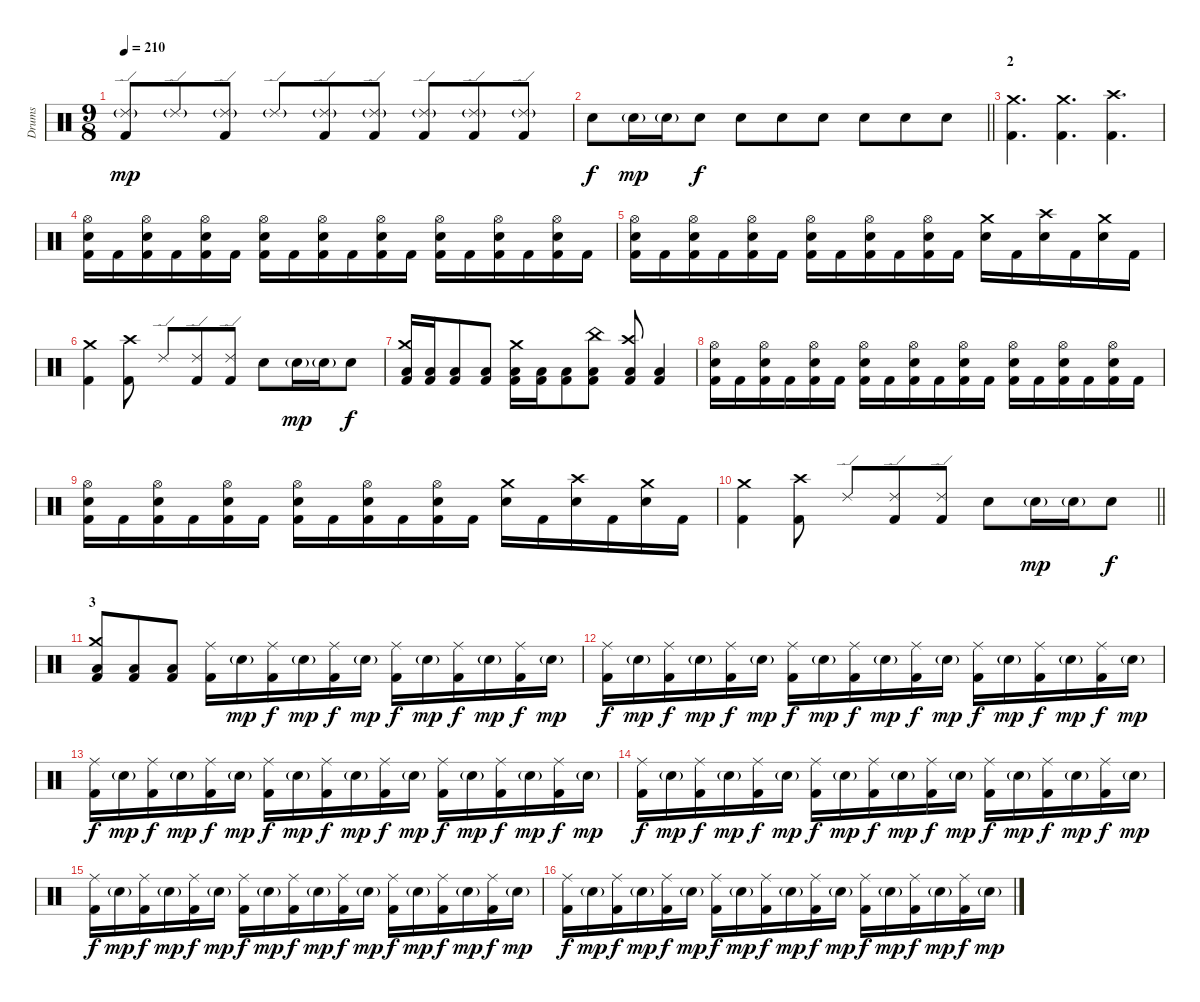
\track ("Drums" "Drums") {instrument percussion}
\staff {score}
\articulation defaults
\ts (9 8)
\tempo 210
\clef neutral
\ks c
("Ride (edge) 2"{g} "Kick (hit) 2").8{dy mp} "Ride (edge) 2"{g}.8 ("Ride (edge) 2"{g} "Kick (hit) 2").8 "Ride (edge) 2"{g}.8 ("Ride (edge) 2"{g} "Kick (hit) 2").8 ("Ride (edge) 2"{g} "Kick (hit) 2").8 ("Ride (edge) 2"{g} "Kick (hit) 2").8 ("Ride (edge) 2"{g} "Kick (hit) 2").8 ("Ride (edge) 2"{g} "Kick (hit) 2").8 |
\barLineRight lightlight "Electric Snare (hit)".8{dy f} "Electric Snare (hit)"{g}.16{dy mp} "Electric Snare (hit)"{g}.16 "Electric Snare (hit)".8{dy f} "Electric Snare (hit)".8 "Electric Snare (hit)".8 "Electric Snare (hit)".8 "Electric Snare (hit)".8 "Electric Snare (hit)".8 "Electric Snare (hit)".8
|
\section ("" "2")
("Crash medium (hit)" "Kick (hit) 2").4{d} ("Crash medium (hit)" "Kick (hit) 2").4{d} ("Crash high (hit)" "Kick (hit) 2").4{d} |
("Hi-Hat (open)" "Electric Snare (hit)" "Kick (hit) 2").16 "Kick (hit) 2".16 ("Hi-Hat (open)" "Electric Snare (hit)" "Kick (hit) 2").16 "Kick (hit) 2".16 ("Hi-Hat (open)" "Electric Snare (hit)" "Kick (hit) 2").16 "Kick (hit) 2".16 ("Hi-Hat (open)" "Electric Snare (hit)" "Kick (hit) 2").16 "Kick (hit) 2".16 ("Hi-Hat (open)" "Electric Snare (hit)" "Kick (hit) 2").16 "Kick (hit) 2".16 ("Hi-Hat (open)" "Electric Snare (hit)" "Kick (hit) 2").16 "Kick (hit) 2".16 ("Hi-Hat (open)" "Electric Snare (hit)" "Kick (hit) 2").16 "Kick (hit) 2".16 ("Hi-Hat (open)" "Electric Snare (hit)" "Kick (hit) 2").16 "Kick (hit) 2".16 ("Hi-Hat (open)" "Electric Snare (hit)" "Kick (hit) 2").16 "Kick (hit) 2".16 |
("Hi-Hat (open)" "Electric Snare (hit)" "Kick (hit) 2").16 "Kick (hit) 2".16 ("Hi-Hat (open)" "Electric Snare (hit)" "Kick (hit) 2").16 "Kick (hit) 2".16 ("Hi-Hat (open)" "Electric Snare (hit)" "Kick (hit) 2").16 "Kick (hit) 2".16 ("Hi-Hat (open)" "Electric Snare (hit)" "Kick (hit) 2").16 "Kick (hit) 2".16 ("Hi-Hat (open)" "Electric Snare (hit)" "Kick (hit) 2").16 "Kick (hit) 2".16 ("Hi-Hat (open)" "Electric Snare (hit)" "Kick (hit) 2").16 "Kick (hit) 2".16 ("Crash medium (hit)" "Electric Snare (hit)").16 "Kick (hit) 2".16 ("Crash high (hit)" "Electric Snare (hit)").16 "Kick (hit) 2".16 ("Crash medium (hit)" "Electric Snare (hit)").16 "Kick (hit) 2".16 |
("Crash medium (hit)" "Kick (hit) 2").4 ("Crash high (hit)" "Kick (hit) 2").8 "Ride (edge) 2".8 ("Ride (edge) 2" "Kick (hit) 2").8 ("Ride (edge) 2" "Kick (hit) 2").8 "Electric Snare (hit)".8 "Electric Snare (hit)"{g}.16{dy mp} "Electric Snare (hit)"{g}.16 "Electric Snare (hit)".8{dy f} |
("Crash medium (hit)" "Low Tom (hit)" "Kick (hit) 2").16 ("Low Tom (hit)" "Kick (hit) 2").16 ("Low Tom (hit)" "Kick (hit) 2").8 ("Low Tom (hit)" "Kick (hit) 2").8 ("Crash medium (hit)" "Low Tom (hit)" "Kick (hit) 2").16 ("Low Tom (hit)" "Kick (hit) 2").16 ("Low Tom (hit)" "Kick (hit) 2").8 ("China (hit)" "Low Tom (hit)" "Kick (hit) 2").8 ("Crash high (hit)" "Low Tom (hit)" "Kick (hit) 2").8 ("Low Tom (hit)" "Kick (hit) 2").4 |
("Hi-Hat (open)" "Electric Snare (hit)" "Kick (hit) 2").16 "Kick (hit) 2".16 ("Hi-Hat (open)" "Electric Snare (hit)" "Kick (hit) 2").16 "Kick (hit) 2".16 ("Hi-Hat (open)" "Electric Snare (hit)" "Kick (hit) 2").16 "Kick (hit) 2".16 ("Hi-Hat (open)" "Electric Snare (hit)" "Kick (hit) 2").16 "Kick (hit) 2".16 ("Hi-Hat (open)" "Electric Snare (hit)" "Kick (hit) 2").16 "Kick (hit) 2".16 ("Hi-Hat (open)" "Electric Snare (hit)" "Kick (hit) 2").16 "Kick (hit) 2".16 ("Hi-Hat (open)" "Electric Snare (hit)" "Kick (hit) 2").16 "Kick (hit) 2".16 ("Hi-Hat (open)" "Electric Snare (hit)" "Kick (hit) 2").16 "Kick (hit) 2".16 ("Hi-Hat (open)" "Electric Snare (hit)" "Kick (hit) 2").16 "Kick (hit) 2".16 |
("Hi-Hat (open)" "Electric Snare (hit)" "Kick (hit) 2").16 "Kick (hit) 2".16 ("Hi-Hat (open)" "Electric Snare (hit)" "Kick (hit) 2").16 "Kick (hit) 2".16 ("Hi-Hat (open)" "Electric Snare (hit)" "Kick (hit) 2").16 "Kick (hit) 2".16 ("Hi-Hat (open)" "Electric Snare (hit)" "Kick (hit) 2").16 "Kick (hit) 2".16 ("Hi-Hat (open)" "Electric Snare (hit)" "Kick (hit) 2").16 "Kick (hit) 2".16 ("Hi-Hat (open)" "Electric Snare (hit)" "Kick (hit) 2").16 "Kick (hit) 2".16 ("Crash medium (hit)" "Electric Snare (hit)").16 "Kick (hit) 2".16 ("Crash high (hit)" "Electric Snare (hit)").16 "Kick (hit) 2".16 ("Crash medium (hit)" "Electric Snare (hit)").16 "Kick (hit) 2".16 |
\barLineRight lightlight
("Crash medium (hit)" "Kick (hit) 2").4 ("Crash high (hit)" "Kick (hit) 2").8 "Ride (edge) 2".8 ("Ride (edge) 2" "Kick (hit) 2").8 ("Ride (edge) 2" "Kick (hit) 2").8 "Electric Snare (hit)".8 "Electric Snare (hit)"{g}.16{dy mp} "Electric Snare (hit)"{g}.16 "Electric Snare (hit)".8{dy f} |
\section ("" "3")
("Crash medium (hit)" "Low Tom (hit)" "Kick (hit) 2").8 ("Low Tom (hit)" "Kick (hit) 2").8 ("Low Tom (hit)" "Kick (hit) 2").8 ("Ride (middle)" "Kick (hit) 2").16 "Electric Snare (hit)"{g}.16{dy mp} ("Ride (middle)" "Kick (hit) 2").16{dy f} "Electric Snare (hit)"{g}.16{dy mp} ("Ride (middle)" "Kick (hit) 2").16{dy f} "Electric Snare (hit)"{g}.16{dy mp} ("Ride (middle)" "Kick (hit) 2").16{dy f} "Electric Snare (hit)"{g}.16{dy mp} ("Ride (middle)" "Kick (hit) 2").16{dy f} "Electric Snare (hit)"{g}.16{dy mp} ("Ride (middle)" "Kick (hit) 2").16{dy f} "Electric Snare (hit)"{g}.16{dy mp} |
("Ride (middle)" "Kick (hit) 2").16{dy f} "Electric Snare (hit)"{g}.16{dy mp} ("Ride (middle)" "Kick (hit) 2").16{dy f} "Electric Snare (hit)"{g}.16{dy mp} ("Ride (middle)" "Kick (hit) 2").16{dy f} "Electric Snare (hit)"{g}.16{dy mp} ("Ride (middle)" "Kick (hit) 2").16{dy f} "Electric Snare (hit)"{g}.16{dy mp} ("Ride (middle)" "Kick (hit) 2").16{dy f} "Electric Snare (hit)"{g}.16{dy mp} ("Ride (middle)" "Kick (hit) 2").16{dy f} "Electric Snare (hit)"{g}.16{dy mp} ("Ride (middle)" "Kick (hit) 2").16{dy f} "Electric Snare (hit)"{g}.16{dy mp} ("Ride (middle)" "Kick (hit) 2").16{dy f} "Electric Snare (hit)"{g}.16{dy mp} ("Ride (middle)" "Kick (hit) 2").16{dy f} "Electric Snare (hit)"{g}.16{dy mp} |
("Ride (middle)" "Kick (hit) 2").16{dy f} "Electric Snare (hit)"{g}.16{dy mp} ("Ride (middle)" "Kick (hit) 2").16{dy f} "Electric Snare (hit)"{g}.16{dy mp} ("Ride (middle)" "Kick (hit) 2").16{dy f} "Electric Snare (hit)"{g}.16{dy mp} ("Ride (middle)" "Kick (hit) 2").16{dy f} "Electric Snare (hit)"{g}.16{dy mp} ("Ride (middle)" "Kick (hit) 2").16{dy f} "Electric Snare (hit)"{g}.16{dy mp} ("Ride (middle)" "Kick (hit) 2").16{dy f} "Electric Snare (hit)"{g}.16{dy mp} ("Ride (middle)" "Kick (hit) 2").16{dy f} "Electric Snare (hit)"{g}.16{dy mp} ("Ride (middle)" "Kick (hit) 2").16{dy f} "Electric Snare (hit)"{g}.16{dy mp} ("Ride (middle)" "Kick (hit) 2").16{dy f} "Electric Snare (hit)"{g}.16{dy mp} |
("Ride (middle)" "Kick (hit) 2").16{dy f} "Electric Snare (hit)"{g}.16{dy mp} ("Ride (middle)" "Kick (hit) 2").16{dy f} "Electric Snare (hit)"{g}.16{dy mp} ("Ride (middle)" "Kick (hit) 2").16{dy f} "Electric Snare (hit)"{g}.16{dy mp} ("Ride (middle)" "Kick (hit) 2").16{dy f} "Electric Snare (hit)"{g}.16{dy mp} ("Ride (middle)" "Kick (hit) 2").16{dy f} "Electric Snare (hit)"{g}.16{dy mp} ("Ride (middle)" "Kick (hit) 2").16{dy f} "Electric Snare (hit)"{g}.16{dy mp} ("Ride (middle)" "Kick (hit) 2").16{dy f} "Electric Snare (hit)"{g}.16{dy mp} ("Ride (middle)" "Kick (hit) 2").16{dy f} "Electric Snare (hit)"{g}.16{dy mp} ("Ride (middle)" "Kick (hit) 2").16{dy f} "Electric Snare (hit)"{g}.16{dy mp} |
("Ride (middle)" "Kick (hit) 2").16{dy f} "Electric Snare (hit)"{g}.16{dy mp} ("Ride (middle)" "Kick (hit) 2").16{dy f} "Electric Snare (hit)"{g}.16{dy mp} ("Ride (middle)" "Kick (hit) 2").16{dy f} "Electric Snare (hit)"{g}.16{dy mp} ("Ride (middle)" "Kick (hit) 2").16{dy f} "Electric Snare (hit)"{g}.16{dy mp} ("Ride (middle)" "Kick (hit) 2").16{dy f} "Electric Snare (hit)"{g}.16{dy mp} ("Ride (middle)" "Kick (hit) 2").16{dy f} "Electric Snare (hit)"{g}.16{dy mp} ("Ride (middle)" "Kick (hit) 2").16{dy f} "Electric Snare (hit)"{g}.16{dy mp} ("Ride (middle)" "Kick (hit) 2").16{dy f} "Electric Snare (hit)"{g}.16{dy mp} ("Ride (middle)" "Kick (hit) 2").16{dy f} "Electric Snare (hit)"{g}.16{dy mp} |
("Ride (middle)" "Kick (hit) 2").16{dy f} "Electric Snare (hit)"{g}.16{dy mp} ("Ride (middle)" "Kick (hit) 2").16{dy f} "Electric Snare (hit)"{g}.16{dy mp} ("Ride (middle)" "Kick (hit) 2").16{dy f} "Electric Snare (hit)"{g}.16{dy mp} ("Ride (middle)" "Kick (hit) 2").16{dy f} "Electric Snare (hit)"{g}.16{dy mp} ("Ride (middle)" "Kick (hit) 2").16{dy f} "Electric Snare (hit)"{g}.16{dy mp} ("Ride (middle)" "Kick (hit) 2").16{dy f} "Electric Snare (hit)"{g}.16{dy mp} ("Ride (middle)" "Kick (hit) 2").16{dy f} "Electric Snare (hit)"{g}.16{dy mp} ("Ride (middle)" "Kick (hit) 2").16{dy f} "Electric Snare (hit)"{g}.16{dy mp} ("Ride (middle)" "Kick (hit) 2").16{dy f} "Electric Snare (hit)"{g}.16{dy mp}
